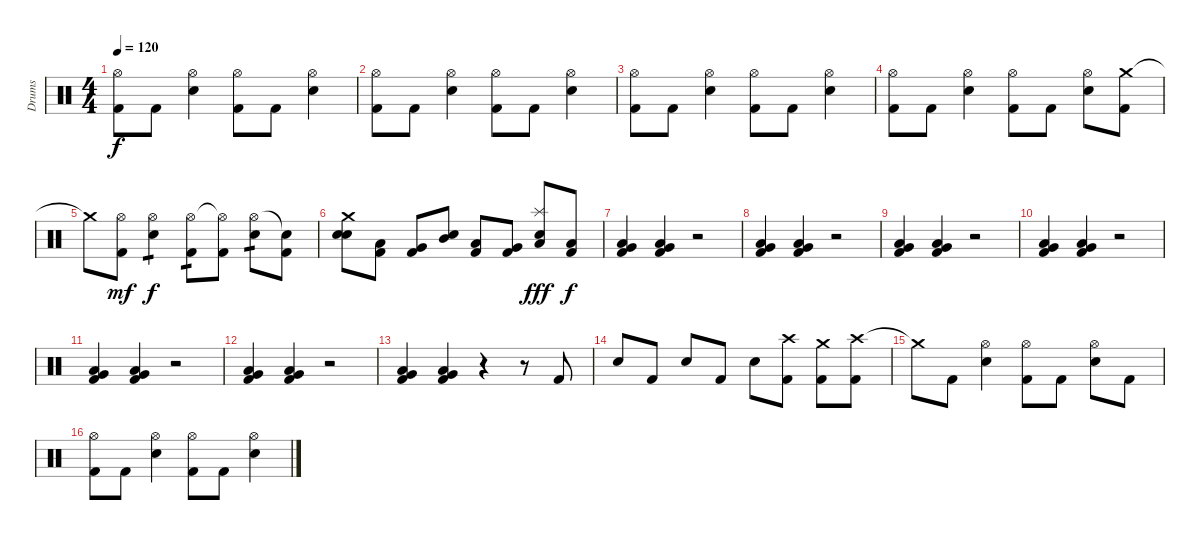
\track ("Drums" "Drums") {instrument percussion}
\staff {score}
\articulation defaults
\ts (4 4)
\tempo 120
\clef neutral
\ks c
("Hi-Hat (open)" "Kick (hit) 2").8{dy f} "Kick (hit) 2".8 ("Hi-Hat (open)" "Electric Snare (hit)").4 ("Hi-Hat (open)" "Kick (hit) 2").8 "Kick (hit) 2".8 ("Hi-Hat (open)" "Electric Snare (hit)").4 |
("Hi-Hat (open)" "Kick (hit) 2").8 "Kick (hit) 2".8 ("Hi-Hat (open)" "Electric Snare (hit)").4 ("Hi-Hat (open)" "Kick (hit) 2").8 "Kick (hit) 2".8 ("Hi-Hat (open)" "Electric Snare (hit)").4 |
("Hi-Hat (open)" "Kick (hit) 2").8 "Kick (hit) 2".8 ("Hi-Hat (open)" "Electric Snare (hit)").4 ("Hi-Hat (open)" "Kick (hit) 2").8 "Kick (hit) 2".8 ("Hi-Hat (open)" "Electric Snare (hit)").4 |
("Hi-Hat (open)" "Kick (hit) 2").8 "Kick (hit) 2".8 ("Hi-Hat (open)" "Electric Snare (hit)").4 ("Hi-Hat (open)" "Kick (hit) 2").8 "Kick (hit) 2".8 ("Hi-Hat (open)" "Electric Snare (hit)").8 ("Crash medium (hit)" "Kick (hit) 2").8 |
"Crash medium (hit)"{t}.8 ("Hi-Hat (open)" "Kick (hit) 2").8{dy mf} ("Hi-Hat (open)" "Electric Snare (hit)").4{tp 1 dy f} ("Hi-Hat (open)" "Kick (hit) 2").8{tp 1} ("Hi-Hat (open)"{t} "Kick (hit) 2").8 ("Hi-Hat (open)" "Electric Snare (hit)").8{tp 1} ("Snare (hit)"{t} "Kick (hit) 2").8 |
("Crash medium (hit)" "Electric Snare (hit)" "Electric Snare (hit)").8 ("Low Tom (hit)" "Kick (hit) 2").8 ("Very Low Tom (hit)" "Kick (hit) 2").8 ("Mid Tom (hit)" "Electric Snare (hit)").8 ("Low Tom (hit)" "Kick (hit) 2").8 ("Very Low Tom (hit)" "Kick (hit) 2").8 ("Splash (hit)" "Low Floor Tom (hit)" "Electric Snare (hit)").8{dy fff} ("Low Floor Tom (hit)" "Kick (hit) 2").8{dy f} |
("Low Floor Tom (hit)" "Very Low Tom (hit)" "Kick (hit) 2").4 ("Low Floor Tom (hit)" "Very Low Tom (hit)" "Kick (hit) 2").4 r.2 |
("Low Floor Tom (hit)" "Very Low Tom (hit)" "Kick (hit) 2").4 ("Low Floor Tom (hit)" "Very Low Tom (hit)" "Kick (hit) 2").4 r.2 |
("Low Floor Tom (hit)" "Very Low Tom (hit)" "Kick (hit) 2").4 ("Low Floor Tom (hit)" "Very Low Tom (hit)" "Kick (hit) 2").4 r.2 |
("Low Floor Tom (hit)" "Very Low Tom (hit)" "Kick (hit) 2").4 ("Low Floor Tom (hit)" "Very Low Tom (hit)" "Kick (hit) 2").4 r.2 |
("Low Floor Tom (hit)" "Very Low Tom (hit)" "Kick (hit) 2").4 ("Low Floor Tom (hit)" "Very Low Tom (hit)" "Kick (hit) 2").4 r.2 |
("Low Floor Tom (hit)" "Very Low Tom (hit)" "Kick (hit) 2").4 ("Low Floor Tom (hit)" "Very Low Tom (hit)" "Kick (hit) 2").4 r.2 |
("Low Floor Tom (hit)" "Very Low Tom (hit)" "Kick (hit) 2").4 ("Low Floor Tom (hit)" "Very Low Tom (hit)" "Kick (hit) 2").4 r.4 r.8 "Kick (hit) 2".8 |
"Electric Snare (hit)".8 "Kick (hit) 2".8 "Electric Snare (hit)".8 "Kick (hit) 2".8 "Electric Snare (hit)".8 ("Crash high (hit)" "Kick (hit) 2").8 ("Crash medium (hit)" "Kick (hit) 2").8 ("Crash high (hit)" "Kick (hit) 2").8 |
"Crash medium (hit)"{t}.8 "Kick (hit) 2".8 ("Hi-Hat (open)" "Electric Snare (hit)").4 ("Hi-Hat (open)" "Kick (hit) 2").8 "Kick (hit) 2".8 ("Hi-Hat (open)" "Electric Snare (hit)").8 "Kick (hit) 2".8 |
("Hi-Hat (open)" "Kick (hit) 2").8 "Kick (hit) 2".8 ("Hi-Hat (open)" "Electric Snare (hit)").4 ("Hi-Hat (open)" "Kick (hit) 2").8 "Kick (hit) 2".8 ("Hi-Hat (open)" "Electric Snare (hit)").4
